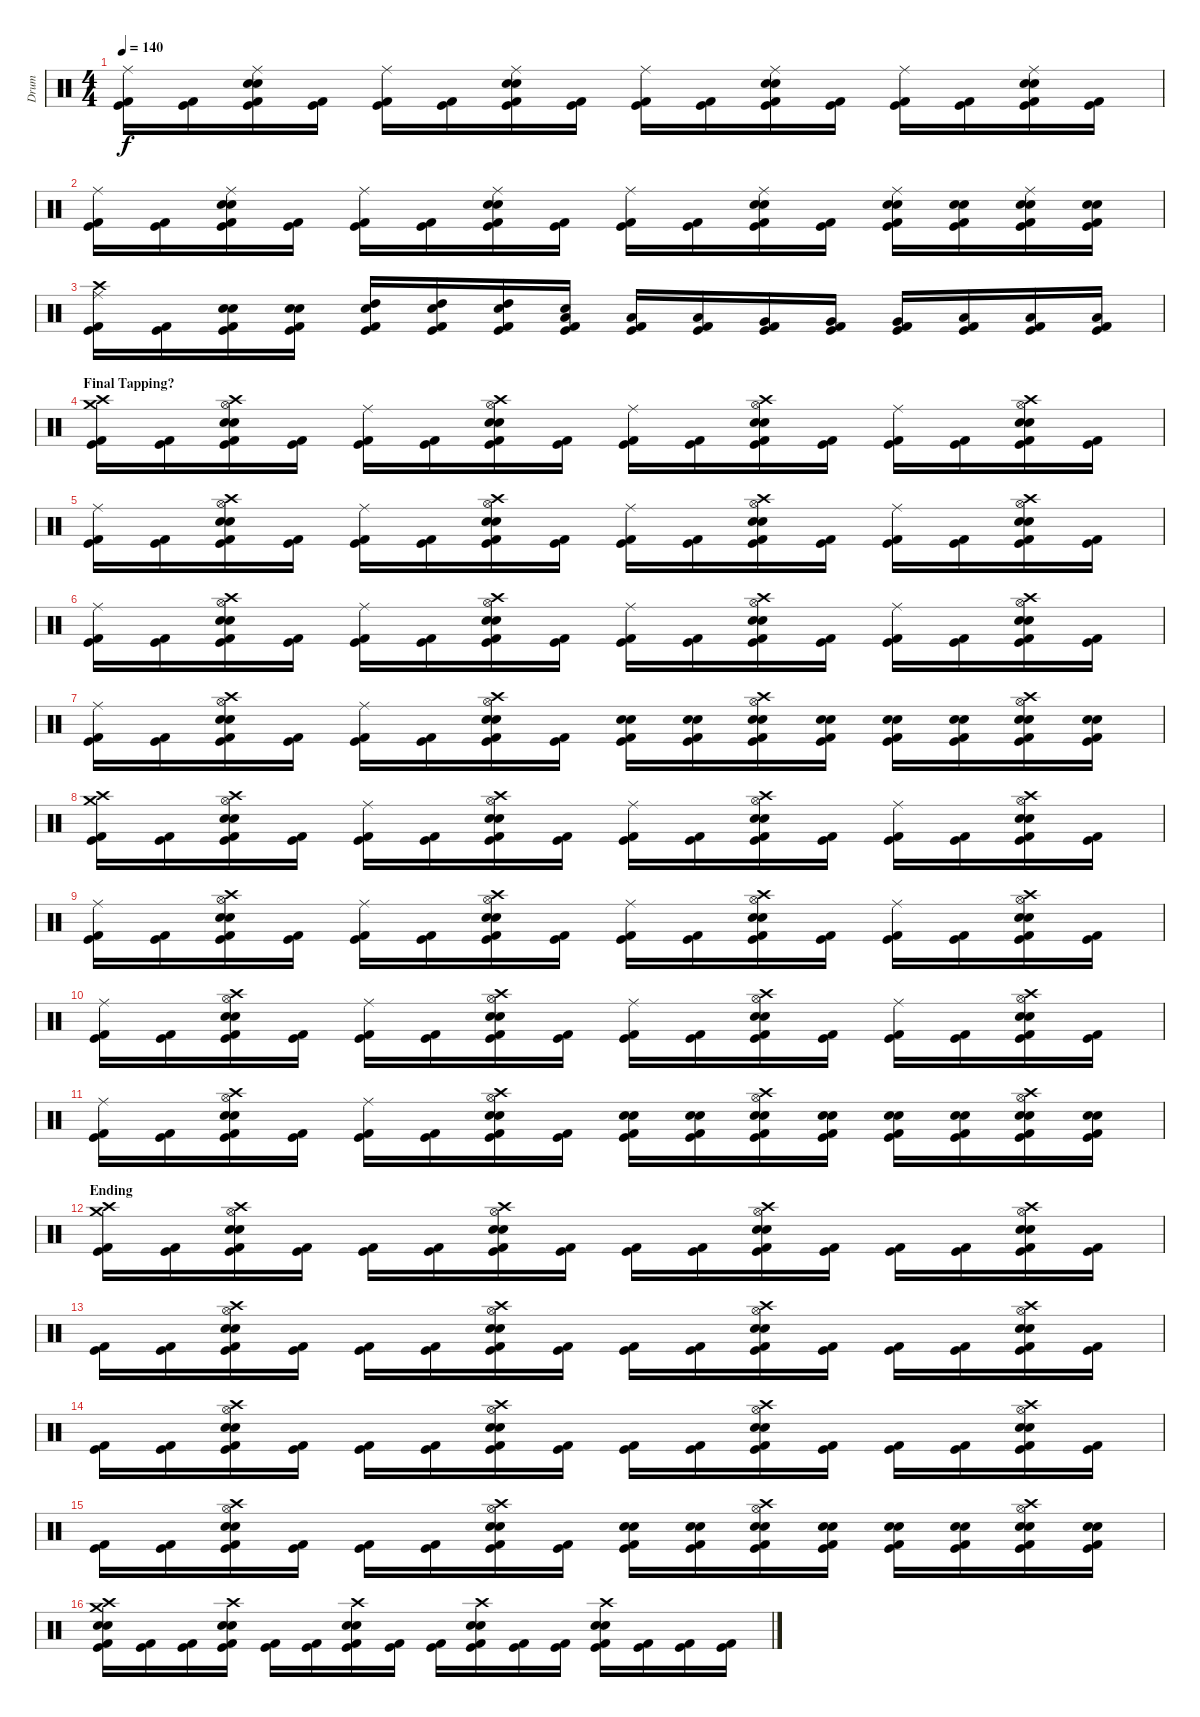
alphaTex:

\track ("Drum" "Drum") {instrument percussion}
\staff {score}
\articulation defaults
\ts (4 4)
\tempo 140
\clef neutral
\ks c
("Ride (middle)" "Kick (hit)" "Kick (hit) 2").16{dy f} ("Kick (hit)" "Kick (hit) 2").16 ("Ride (middle)" "Snare (hit) 2" "Electric Snare (hit)" "Kick (hit)" "Kick (hit) 2").16 ("Kick (hit)" "Kick (hit) 2").16 ("Ride (middle)" "Kick (hit)" "Kick (hit) 2").16 ("Kick (hit)" "Kick (hit) 2").16 ("Ride (middle)" "Snare (hit) 2" "Electric Snare (hit)" "Kick (hit)" "Kick (hit) 2").16 ("Kick (hit)" "Kick (hit) 2").16 ("Ride (middle)" "Kick (hit)" "Kick (hit) 2").16 ("Kick (hit)" "Kick (hit) 2").16 ("Ride (middle)" "Snare (hit) 2" "Electric Snare (hit)" "Kick (hit)" "Kick (hit) 2").16 ("Kick (hit)" "Kick (hit) 2").16 ("Ride (middle)" "Kick (hit)" "Kick (hit) 2").16 ("Kick (hit)" "Kick (hit) 2").16 ("Ride (middle)" "Snare (hit) 2" "Electric Snare (hit)" "Kick (hit)" "Kick (hit) 2").16 ("Kick (hit)" "Kick (hit) 2").16 |
("Ride (middle)" "Kick (hit)" "Kick (hit) 2").16 ("Kick (hit)" "Kick (hit) 2").16 ("Ride (middle)" "Snare (hit) 2" "Electric Snare (hit)" "Kick (hit)" "Kick (hit) 2").16 ("Kick (hit)" "Kick (hit) 2").16 ("Ride (middle)" "Kick (hit)" "Kick (hit) 2").16 ("Kick (hit)" "Kick (hit) 2").16 ("Ride (middle)" "Snare (hit) 2" "Electric Snare (hit)" "Kick (hit)" "Kick (hit) 2").16 ("Kick (hit)" "Kick (hit) 2").16 ("Ride (middle)" "Kick (hit)" "Kick (hit) 2").16 ("Kick (hit)" "Kick (hit) 2").16 ("Ride (middle)" "Snare (hit) 2" "Electric Snare (hit)" "Kick (hit)" "Kick (hit) 2").16 ("Kick (hit)" "Kick (hit) 2").16 ("Ride (middle)" "Snare (hit) 2" "Electric Snare (hit)" "Kick (hit)" "Kick (hit) 2").16 ("Snare (hit) 2" "Electric Snare (hit)" "Kick (hit)" "Kick (hit) 2").16 ("Ride (middle)" "Snare (hit) 2" "Electric Snare (hit)" "Kick (hit)" "Kick (hit) 2").16 ("Snare (hit) 2" "Electric Snare (hit)" "Kick (hit)" "Kick (hit) 2").16 |
("Crash high (hit)" "Ride (middle)" "Kick (hit)" "Kick (hit) 2").16 ("Kick (hit)" "Kick (hit) 2").16 ("Snare (hit) 2" "Electric Snare (hit)" "Kick (hit)" "Kick (hit) 2").16 ("Snare (hit) 2" "Electric Snare (hit)" "Kick (hit)" "Kick (hit) 2").16 ("High Tom (hit)" "Electric Snare (hit)" "Kick (hit)" "Kick (hit) 2").16 ("High Tom (hit)" "Electric Snare (hit)" "Kick (hit)" "Kick (hit) 2").16 ("High Tom (hit)" "Electric Snare (hit)" "Kick (hit)" "Kick (hit) 2").16 ("Low Tom (hit)" "Electric Snare (hit)" "Kick (hit)" "Kick (hit) 2").16 ("Low Tom (hit)" "Kick (hit)" "Kick (hit) 2").16 ("Low Tom (hit)" "Kick (hit)" "Kick (hit) 2").16 ("Very Low Tom (hit)" "Kick (hit)" "Kick (hit) 2").16 ("Very Low Tom (hit)" "Kick (hit)" "Kick (hit) 2").16 ("Very Low Tom (hit)" "Kick (hit)" "Kick (hit) 2").16 ("Low Floor Tom (hit)" "Kick (hit)" "Kick (hit) 2").16 ("Low Floor Tom (hit)" "Kick (hit)" "Kick (hit) 2").16 ("Low Floor Tom (hit)" "Kick (hit)" "Kick (hit) 2").16 |
\section ("" "Final Tapping?")
("Crash medium (hit)" "Crash high (hit)" "Kick (hit)" "Kick (hit) 2").16 ("Kick (hit)" "Kick (hit) 2").16 ("Crash high (hit)" "Hi-Hat (open)" "Snare (hit) 2" "Electric Snare (hit)" "Kick (hit)" "Kick (hit) 2").16 ("Kick (hit)" "Kick (hit) 2").16 ("Ride (middle)" "Kick (hit)" "Kick (hit) 2").16 ("Kick (hit)" "Kick (hit) 2").16 ("Crash high (hit)" "Hi-Hat (open)" "Snare (hit) 2" "Electric Snare (hit)" "Kick (hit)" "Kick (hit) 2").16 ("Kick (hit)" "Kick (hit) 2").16 ("Ride (middle)" "Kick (hit)" "Kick (hit) 2").16 ("Kick (hit)" "Kick (hit) 2").16 ("Crash high (hit)" "Hi-Hat (open)" "Snare (hit) 2" "Electric Snare (hit)" "Kick (hit)" "Kick (hit) 2").16 ("Kick (hit)" "Kick (hit) 2").16 ("Ride (middle)" "Kick (hit)" "Kick (hit) 2").16 ("Kick (hit)" "Kick (hit) 2").16 ("Crash high (hit)" "Hi-Hat (open)" "Snare (hit) 2" "Electric Snare (hit)" "Kick (hit)" "Kick (hit) 2").16 ("Kick (hit)" "Kick (hit) 2").16 |
("Ride (middle)" "Kick (hit)" "Kick (hit) 2").16 ("Kick (hit)" "Kick (hit) 2").16 ("Crash high (hit)" "Hi-Hat (open)" "Snare (hit) 2" "Electric Snare (hit)" "Kick (hit)" "Kick (hit) 2").16 ("Kick (hit)" "Kick (hit) 2").16 ("Ride (middle)" "Kick (hit)" "Kick (hit) 2").16 ("Kick (hit)" "Kick (hit) 2").16 ("Crash high (hit)" "Hi-Hat (open)" "Snare (hit) 2" "Electric Snare (hit)" "Kick (hit)" "Kick (hit) 2").16 ("Kick (hit)" "Kick (hit) 2").16 ("Ride (middle)" "Kick (hit)" "Kick (hit) 2").16 ("Kick (hit)" "Kick (hit) 2").16 ("Crash high (hit)" "Hi-Hat (open)" "Snare (hit) 2" "Electric Snare (hit)" "Kick (hit)" "Kick (hit) 2").16 ("Kick (hit)" "Kick (hit) 2").16 ("Ride (middle)" "Kick (hit)" "Kick (hit) 2").16 ("Kick (hit)" "Kick (hit) 2").16 ("Crash high (hit)" "Hi-Hat (open)" "Snare (hit) 2" "Electric Snare (hit)" "Kick (hit)" "Kick (hit) 2").16 ("Kick (hit)" "Kick (hit) 2").16 |
("Ride (middle)" "Kick (hit)" "Kick (hit) 2").16 ("Kick (hit)" "Kick (hit) 2").16 ("Crash high (hit)" "Hi-Hat (open)" "Snare (hit) 2" "Electric Snare (hit)" "Kick (hit)" "Kick (hit) 2").16 ("Kick (hit)" "Kick (hit) 2").16 ("Ride (middle)" "Kick (hit)" "Kick (hit) 2").16 ("Kick (hit)" "Kick (hit) 2").16 ("Crash high (hit)" "Hi-Hat (open)" "Snare (hit) 2" "Electric Snare (hit)" "Kick (hit)" "Kick (hit) 2").16 ("Kick (hit)" "Kick (hit) 2").16 ("Ride (middle)" "Kick (hit)" "Kick (hit) 2").16 ("Kick (hit)" "Kick (hit) 2").16 ("Crash high (hit)" "Hi-Hat (open)" "Snare (hit) 2" "Electric Snare (hit)" "Kick (hit)" "Kick (hit) 2").16 ("Kick (hit)" "Kick (hit) 2").16 ("Ride (middle)" "Kick (hit)" "Kick (hit) 2").16 ("Kick (hit)" "Kick (hit) 2").16 ("Crash high (hit)" "Hi-Hat (open)" "Snare (hit) 2" "Electric Snare (hit)" "Kick (hit)" "Kick (hit) 2").16 ("Kick (hit)" "Kick (hit) 2").16 |
("Ride (middle)" "Kick (hit)" "Kick (hit) 2").16 ("Kick (hit)" "Kick (hit) 2").16 ("Crash high (hit)" "Hi-Hat (open)" "Snare (hit) 2" "Electric Snare (hit)" "Kick (hit)" "Kick (hit) 2").16 ("Kick (hit)" "Kick (hit) 2").16 ("Ride (middle)" "Kick (hit)" "Kick (hit) 2").16 ("Kick (hit)" "Kick (hit) 2").16 ("Crash high (hit)" "Hi-Hat (open)" "Snare (hit) 2" "Electric Snare (hit)" "Kick (hit)" "Kick (hit) 2").16 ("Kick (hit)" "Kick (hit) 2").16 ("Snare (hit) 2" "Electric Snare (hit)" "Kick (hit)" "Kick (hit) 2").16 ("Snare (hit) 2" "Electric Snare (hit)" "Kick (hit)" "Kick (hit) 2").16 ("Crash high (hit)" "Hi-Hat (open)" "Snare (hit) 2" "Electric Snare (hit)" "Kick (hit)" "Kick (hit) 2").16 ("Snare (hit) 2" "Electric Snare (hit)" "Kick (hit)" "Kick (hit) 2").16 ("Snare (hit) 2" "Electric Snare (hit)" "Kick (hit)" "Kick (hit) 2").16 ("Snare (hit) 2" "Electric Snare (hit)" "Kick (hit)" "Kick (hit) 2").16 ("Crash high (hit)" "Hi-Hat (open)" "Snare (hit) 2" "Electric Snare (hit)" "Kick (hit)" "Kick (hit) 2").16 ("Snare (hit) 2" "Electric Snare (hit)" "Kick (hit)" "Kick (hit) 2").16 |
("Crash medium (hit)" "Crash high (hit)" "Kick (hit)" "Kick (hit) 2").16 ("Kick (hit)" "Kick (hit) 2").16 ("Crash high (hit)" "Hi-Hat (open)" "Snare (hit) 2" "Electric Snare (hit)" "Kick (hit)" "Kick (hit) 2").16 ("Kick (hit)" "Kick (hit) 2").16 ("Ride (middle)" "Kick (hit)" "Kick (hit) 2").16 ("Kick (hit)" "Kick (hit) 2").16 ("Crash high (hit)" "Hi-Hat (open)" "Snare (hit) 2" "Electric Snare (hit)" "Kick (hit)" "Kick (hit) 2").16 ("Kick (hit)" "Kick (hit) 2").16 ("Ride (middle)" "Kick (hit)" "Kick (hit) 2").16 ("Kick (hit)" "Kick (hit) 2").16 ("Crash high (hit)" "Hi-Hat (open)" "Snare (hit) 2" "Electric Snare (hit)" "Kick (hit)" "Kick (hit) 2").16 ("Kick (hit)" "Kick (hit) 2").16 ("Ride (middle)" "Kick (hit)" "Kick (hit) 2").16 ("Kick (hit)" "Kick (hit) 2").16 ("Crash high (hit)" "Hi-Hat (open)" "Snare (hit) 2" "Electric Snare (hit)" "Kick (hit)" "Kick (hit) 2").16 ("Kick (hit)" "Kick (hit) 2").16 |
("Ride (middle)" "Kick (hit)" "Kick (hit) 2").16 ("Kick (hit)" "Kick (hit) 2").16 ("Crash high (hit)" "Hi-Hat (open)" "Snare (hit) 2" "Electric Snare (hit)" "Kick (hit)" "Kick (hit) 2").16 ("Kick (hit)" "Kick (hit) 2").16 ("Ride (middle)" "Kick (hit)" "Kick (hit) 2").16 ("Kick (hit)" "Kick (hit) 2").16 ("Crash high (hit)" "Hi-Hat (open)" "Snare (hit) 2" "Electric Snare (hit)" "Kick (hit)" "Kick (hit) 2").16 ("Kick (hit)" "Kick (hit) 2").16 ("Ride (middle)" "Kick (hit)" "Kick (hit) 2").16 ("Kick (hit)" "Kick (hit) 2").16 ("Crash high (hit)" "Hi-Hat (open)" "Snare (hit) 2" "Electric Snare (hit)" "Kick (hit)" "Kick (hit) 2").16 ("Kick (hit)" "Kick (hit) 2").16 ("Ride (middle)" "Kick (hit)" "Kick (hit) 2").16 ("Kick (hit)" "Kick (hit) 2").16 ("Crash high (hit)" "Hi-Hat (open)" "Snare (hit) 2" "Electric Snare (hit)" "Kick (hit)" "Kick (hit) 2").16 ("Kick (hit)" "Kick (hit) 2").16 |
("Ride (middle)" "Kick (hit)" "Kick (hit) 2").16 ("Kick (hit)" "Kick (hit) 2").16 ("Crash high (hit)" "Hi-Hat (open)" "Snare (hit) 2" "Electric Snare (hit)" "Kick (hit)" "Kick (hit) 2").16 ("Kick (hit)" "Kick (hit) 2").16 ("Ride (middle)" "Kick (hit)" "Kick (hit) 2").16 ("Kick (hit)" "Kick (hit) 2").16 ("Crash high (hit)" "Hi-Hat (open)" "Snare (hit) 2" "Electric Snare (hit)" "Kick (hit)" "Kick (hit) 2").16 ("Kick (hit)" "Kick (hit) 2").16 ("Ride (middle)" "Kick (hit)" "Kick (hit) 2").16 ("Kick (hit)" "Kick (hit) 2").16 ("Crash high (hit)" "Hi-Hat (open)" "Snare (hit) 2" "Electric Snare (hit)" "Kick (hit)" "Kick (hit) 2").16 ("Kick (hit)" "Kick (hit) 2").16 ("Ride (middle)" "Kick (hit)" "Kick (hit) 2").16 ("Kick (hit)" "Kick (hit) 2").16 ("Crash high (hit)" "Hi-Hat (open)" "Snare (hit) 2" "Electric Snare (hit)" "Kick (hit)" "Kick (hit) 2").16 ("Kick (hit)" "Kick (hit) 2").16 |
("Ride (middle)" "Kick (hit)" "Kick (hit) 2").16 ("Kick (hit)" "Kick (hit) 2").16 ("Crash high (hit)" "Hi-Hat (open)" "Snare (hit) 2" "Electric Snare (hit)" "Kick (hit)" "Kick (hit) 2").16 ("Kick (hit)" "Kick (hit) 2").16 ("Ride (middle)" "Kick (hit)" "Kick (hit) 2").16 ("Kick (hit)" "Kick (hit) 2").16 ("Crash high (hit)" "Hi-Hat (open)" "Snare (hit) 2" "Electric Snare (hit)" "Kick (hit)" "Kick (hit) 2").16 ("Kick (hit)" "Kick (hit) 2").16 ("Snare (hit) 2" "Electric Snare (hit)" "Kick (hit)" "Kick (hit) 2").16 ("Snare (hit) 2" "Electric Snare (hit)" "Kick (hit)" "Kick (hit) 2").16 ("Crash high (hit)" "Hi-Hat (open)" "Snare (hit) 2" "Electric Snare (hit)" "Kick (hit)" "Kick (hit) 2").16 ("Snare (hit) 2" "Electric Snare (hit)" "Kick (hit)" "Kick (hit) 2").16 ("Snare (hit) 2" "Electric Snare (hit)" "Kick (hit)" "Kick (hit) 2").16 ("Snare (hit) 2" "Electric Snare (hit)" "Kick (hit)" "Kick (hit) 2").16 ("Crash high (hit)" "Hi-Hat (open)" "Snare (hit) 2" "Electric Snare (hit)" "Kick (hit)" "Kick (hit) 2").16 ("Snare (hit) 2" "Electric Snare (hit)" "Kick (hit)" "Kick (hit) 2").16 |
\section ("" "Ending")
("Crash medium (hit)" "Crash high (hit)" "Kick (hit)" "Kick (hit) 2").16 ("Kick (hit)" "Kick (hit) 2").16 ("Crash high (hit)" "Hi-Hat (open)" "Snare (hit) 2" "Electric Snare (hit)" "Kick (hit)" "Kick (hit) 2").16 ("Kick (hit)" "Kick (hit) 2").16 ("Kick (hit)" "Kick (hit) 2").16 ("Kick (hit)" "Kick (hit) 2").16 ("Crash high (hit)" "Hi-Hat (open)" "Snare (hit) 2" "Electric Snare (hit)" "Kick (hit)" "Kick (hit) 2").16 ("Kick (hit)" "Kick (hit) 2").16 ("Kick (hit)" "Kick (hit) 2").16 ("Kick (hit)" "Kick (hit) 2").16 ("Crash high (hit)" "Hi-Hat (open)" "Snare (hit) 2" "Electric Snare (hit)" "Kick (hit)" "Kick (hit) 2").16 ("Kick (hit)" "Kick (hit) 2").16 ("Kick (hit)" "Kick (hit) 2").16 ("Kick (hit)" "Kick (hit) 2").16 ("Crash high (hit)" "Hi-Hat (open)" "Snare (hit) 2" "Electric Snare (hit)" "Kick (hit)" "Kick (hit) 2").16 ("Kick (hit)" "Kick (hit) 2").16 |
("Kick (hit)" "Kick (hit) 2").16 ("Kick (hit)" "Kick (hit) 2").16 ("Crash high (hit)" "Hi-Hat (open)" "Snare (hit) 2" "Electric Snare (hit)" "Kick (hit)" "Kick (hit) 2").16 ("Kick (hit)" "Kick (hit) 2").16 ("Kick (hit)" "Kick (hit) 2").16 ("Kick (hit)" "Kick (hit) 2").16 ("Crash high (hit)" "Hi-Hat (open)" "Snare (hit) 2" "Electric Snare (hit)" "Kick (hit)" "Kick (hit) 2").16 ("Kick (hit)" "Kick (hit) 2").16 ("Kick (hit)" "Kick (hit) 2").16 ("Kick (hit)" "Kick (hit) 2").16 ("Crash high (hit)" "Hi-Hat (open)" "Snare (hit) 2" "Electric Snare (hit)" "Kick (hit)" "Kick (hit) 2").16 ("Kick (hit)" "Kick (hit) 2").16 ("Kick (hit)" "Kick (hit) 2").16 ("Kick (hit)" "Kick (hit) 2").16 ("Crash high (hit)" "Hi-Hat (open)" "Snare (hit) 2" "Electric Snare (hit)" "Kick (hit)" "Kick (hit) 2").16 ("Kick (hit)" "Kick (hit) 2").16 |
("Kick (hit)" "Kick (hit) 2").16 ("Kick (hit)" "Kick (hit) 2").16 ("Crash high (hit)" "Hi-Hat (open)" "Snare (hit) 2" "Electric Snare (hit)" "Kick (hit)" "Kick (hit) 2").16 ("Kick (hit)" "Kick (hit) 2").16 ("Kick (hit)" "Kick (hit) 2").16 ("Kick (hit)" "Kick (hit) 2").16 ("Crash high (hit)" "Hi-Hat (open)" "Snare (hit) 2" "Electric Snare (hit)" "Kick (hit)" "Kick (hit) 2").16 ("Kick (hit)" "Kick (hit) 2").16 ("Kick (hit)" "Kick (hit) 2").16 ("Kick (hit)" "Kick (hit) 2").16 ("Crash high (hit)" "Hi-Hat (open)" "Snare (hit) 2" "Electric Snare (hit)" "Kick (hit)" "Kick (hit) 2").16 ("Kick (hit)" "Kick (hit) 2").16 ("Kick (hit)" "Kick (hit) 2").16 ("Kick (hit)" "Kick (hit) 2").16 ("Crash high (hit)" "Hi-Hat (open)" "Snare (hit) 2" "Electric Snare (hit)" "Kick (hit)" "Kick (hit) 2").16 ("Kick (hit)" "Kick (hit) 2").16 |
("Kick (hit)" "Kick (hit) 2").16 ("Kick (hit)" "Kick (hit) 2").16 ("Crash high (hit)" "Hi-Hat (open)" "Snare (hit) 2" "Electric Snare (hit)" "Kick (hit)" "Kick (hit) 2").16 ("Kick (hit)" "Kick (hit) 2").16 ("Kick (hit)" "Kick (hit) 2").16 ("Kick (hit)" "Kick (hit) 2").16 ("Crash high (hit)" "Hi-Hat (open)" "Snare (hit) 2" "Electric Snare (hit)" "Kick (hit)" "Kick (hit) 2").16 ("Kick (hit)" "Kick (hit) 2").16 ("Snare (hit) 2" "Electric Snare (hit)" "Kick (hit)" "Kick (hit) 2").16 ("Snare (hit) 2" "Electric Snare (hit)" "Kick (hit)" "Kick (hit) 2").16 ("Crash high (hit)" "Hi-Hat (open)" "Snare (hit) 2" "Electric Snare (hit)" "Kick (hit)" "Kick (hit) 2").16 ("Snare (hit) 2" "Electric Snare (hit)" "Kick (hit)" "Kick (hit) 2").16 ("Snare (hit) 2" "Electric Snare (hit)" "Kick (hit)" "Kick (hit) 2").16 ("Snare (hit) 2" "Electric Snare (hit)" "Kick (hit)" "Kick (hit) 2").16 ("Crash high (hit)" "Hi-Hat (open)" "Snare (hit) 2" "Electric Snare (hit)" "Kick (hit)" "Kick (hit) 2").16 ("Snare (hit) 2" "Electric Snare (hit)" "Kick (hit)" "Kick (hit) 2").16 |
("Crash medium (hit)" "Crash high (hit)" "Snare (hit) 2" "Electric Snare (hit)" "Kick (hit)" "Kick (hit) 2").16 ("Kick (hit)" "Kick (hit) 2").16 ("Kick (hit)" "Kick (hit) 2").16 ("Crash high (hit)" "Snare (hit) 2" "Electric Snare (hit)" "Kick (hit)" "Kick (hit) 2").16 ("Kick (hit)" "Kick (hit) 2").16 ("Kick (hit)" "Kick (hit) 2").16 ("Crash high (hit)" "Snare (hit) 2" "Electric Snare (hit)" "Kick (hit)" "Kick (hit) 2").16 ("Kick (hit)" "Kick (hit) 2").16 ("Kick (hit)" "Kick (hit) 2").16 ("Crash high (hit)" "Snare (hit) 2" "Electric Snare (hit)" "Kick (hit)" "Kick (hit) 2").16 ("Kick (hit)" "Kick (hit) 2").16 ("Kick (hit)" "Kick (hit) 2").16 ("Crash high (hit)" "Snare (hit) 2" "Electric Snare (hit)" "Kick (hit)" "Kick (hit) 2").16 ("Kick (hit)" "Kick (hit) 2").16 ("Kick (hit)" "Kick (hit) 2").16 ("Kick (hit)" "Kick (hit) 2").16
